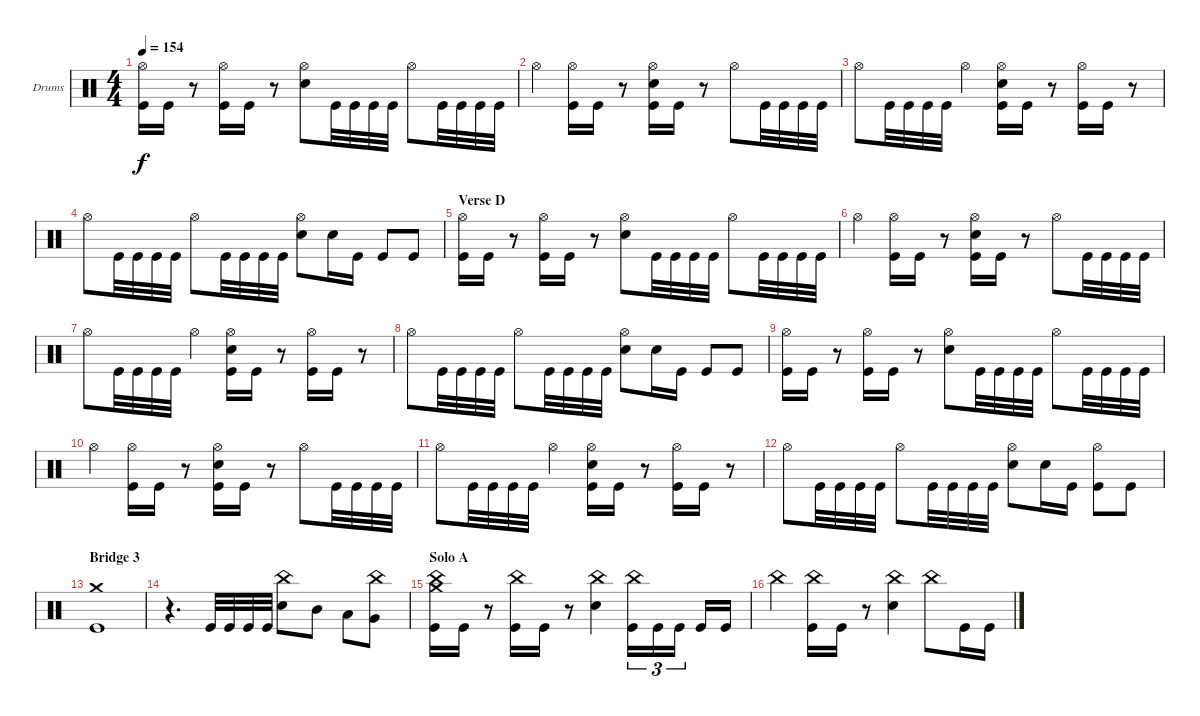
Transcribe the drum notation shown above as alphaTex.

\defaultSystemsLayout 4
\bracketExtendMode groupsimilarinstruments
\firstSystemTrackNameOrientation horizontal
\otherSystemsTrackNameOrientation horizontal
\track ("Drums" "Drums") {instrument percussion}
\staff {score}
\articulation defaults
\ts (4 4)
\tempo 154
\clef neutral
\ks c
("Hi-Hat (open)" "Kick (hit)").16{dy f} "Kick (hit)".16 r.8 ("Kick (hit)" "Hi-Hat (open)").16 "Kick (hit)".16 r.8 ("Hi-Hat (open)" "Snare (hit) 2").8 "Kick (hit)".32 "Kick (hit)".32 "Kick (hit)".32 "Kick (hit)".32 "Hi-Hat (open)".8 "Kick (hit)".32 "Kick (hit)".32 "Kick (hit)".32 "Kick (hit)".32 |
"Hi-Hat (open)".4 ("Kick (hit)" "Hi-Hat (open)").16 "Kick (hit)".16 r.8 ("Kick (hit)" "Hi-Hat (open)" "Snare (hit) 2").16 "Kick (hit)".16 r.8 "Hi-Hat (open)".8 "Kick (hit)".32 "Kick (hit)".32 "Kick (hit)".32 "Kick (hit)".32 |
"Hi-Hat (open)".8 "Kick (hit)".32 "Kick (hit)".32 "Kick (hit)".32 "Kick (hit)".32 "Hi-Hat (open)".4 ("Kick (hit)" "Hi-Hat (open)" "Snare (hit) 2").16 "Kick (hit)".16 r.8 ("Kick (hit)" "Hi-Hat (open)").16 "Kick (hit)".16 r.8 |
"Hi-Hat (open)".8 "Kick (hit)".32 "Kick (hit)".32 "Kick (hit)".32 "Kick (hit)".32 "Hi-Hat (open)".8 "Kick (hit)".32 "Kick (hit)".32 "Kick (hit)".32 "Kick (hit)".32 ("Hi-Hat (open)" "Snare (hit) 2").8 "Snare (hit) 2".16 "Kick (hit)".16 "Kick (hit)".8 "Kick (hit)".8 |
\section ("" "Verse D")
("Hi-Hat (open)" "Kick (hit)").16 "Kick (hit)".16 r.8 ("Kick (hit)" "Hi-Hat (open)").16 "Kick (hit)".16 r.8 ("Hi-Hat (open)" "Snare (hit) 2").8 "Kick (hit)".32 "Kick (hit)".32 "Kick (hit)".32 "Kick (hit)".32 "Hi-Hat (open)".8 "Kick (hit)".32 "Kick (hit)".32 "Kick (hit)".32 "Kick (hit)".32 |
"Hi-Hat (open)".4 ("Kick (hit)" "Hi-Hat (open)").16 "Kick (hit)".16 r.8 ("Kick (hit)" "Hi-Hat (open)" "Snare (hit) 2").16 "Kick (hit)".16 r.8 "Hi-Hat (open)".8 "Kick (hit)".32 "Kick (hit)".32 "Kick (hit)".32 "Kick (hit)".32 |
"Hi-Hat (open)".8 "Kick (hit)".32 "Kick (hit)".32 "Kick (hit)".32 "Kick (hit)".32 "Hi-Hat (open)".4 ("Kick (hit)" "Hi-Hat (open)" "Snare (hit) 2").16 "Kick (hit)".16 r.8 ("Kick (hit)" "Hi-Hat (open)").16 "Kick (hit)".16 r.8 |
"Hi-Hat (open)".8 "Kick (hit)".32 "Kick (hit)".32 "Kick (hit)".32 "Kick (hit)".32 "Hi-Hat (open)".8 "Kick (hit)".32 "Kick (hit)".32 "Kick (hit)".32 "Kick (hit)".32 ("Hi-Hat (open)" "Snare (hit) 2").8 "Snare (hit) 2".16 "Kick (hit)".16 "Kick (hit)".8 "Kick (hit)".8 |
("Hi-Hat (open)" "Kick (hit)").16 "Kick (hit)".16 r.8 ("Kick (hit)" "Hi-Hat (open)").16 "Kick (hit)".16 r.8 ("Hi-Hat (open)" "Snare (hit) 2").8 "Kick (hit)".32 "Kick (hit)".32 "Kick (hit)".32 "Kick (hit)".32 "Hi-Hat (open)".8 "Kick (hit)".32 "Kick (hit)".32 "Kick (hit)".32 "Kick (hit)".32 |
"Hi-Hat (open)".4 ("Kick (hit)" "Hi-Hat (open)").16 "Kick (hit)".16 r.8 ("Kick (hit)" "Hi-Hat (open)" "Snare (hit) 2").16 "Kick (hit)".16 r.8 "Hi-Hat (open)".8 "Kick (hit)".32 "Kick (hit)".32 "Kick (hit)".32 "Kick (hit)".32 |
"Hi-Hat (open)".8 "Kick (hit)".32 "Kick (hit)".32 "Kick (hit)".32 "Kick (hit)".32 "Hi-Hat (open)".4 ("Kick (hit)" "Hi-Hat (open)" "Snare (hit) 2").16 "Kick (hit)".16 r.8 ("Kick (hit)" "Hi-Hat (open)").16 "Kick (hit)".16 r.8 |
"Hi-Hat (open)".8 "Kick (hit)".32 "Kick (hit)".32 "Kick (hit)".32 "Kick (hit)".32 "Hi-Hat (open)".8 "Kick (hit)".32 "Kick (hit)".32 "Kick (hit)".32 "Kick (hit)".32 ("Hi-Hat (open)" "Snare (hit) 2").8 "Snare (hit) 2".16 "Kick (hit)".16 ("Kick (hit)" "Hi-Hat (open)").8 "Kick (hit)".8 |
\section ("" "Bridge 3")
("Kick (hit)" "Crash medium (hit)").1 |
r.4{d} "Kick (hit)".32 "Kick (hit)".32 "Kick (hit)".32 "Kick (hit)".32 ("Snare (hit) 2" "China (hit)").8 "Mid Tom (hit)".8 "Low Tom (hit)".8 ("Very Low Tom (hit)" "China (hit)").8 |
\section ("" "Solo A")
("Kick (hit)" "China (hit)" "Crash medium (hit)").16 "Kick (hit)".16 r.8 ("Kick (hit)" "China (hit)").16 "Kick (hit)".16 r.8 ("Snare (hit) 2" "China (hit)").4 ("Kick (hit)" "China (hit)").16{tu (3 2)} "Kick (hit)".16{tu (3 2)} "Kick (hit)".16{tu (3 2)} "Kick (hit)".16 "Kick (hit)".16 |
"China (hit)".4 ("Kick (hit)" "China (hit)").16 "Kick (hit)".16 r.8 ("Snare (hit) 2" "China (hit)").4 "China (hit)".8 "Kick (hit)".16 "Kick (hit)".16
